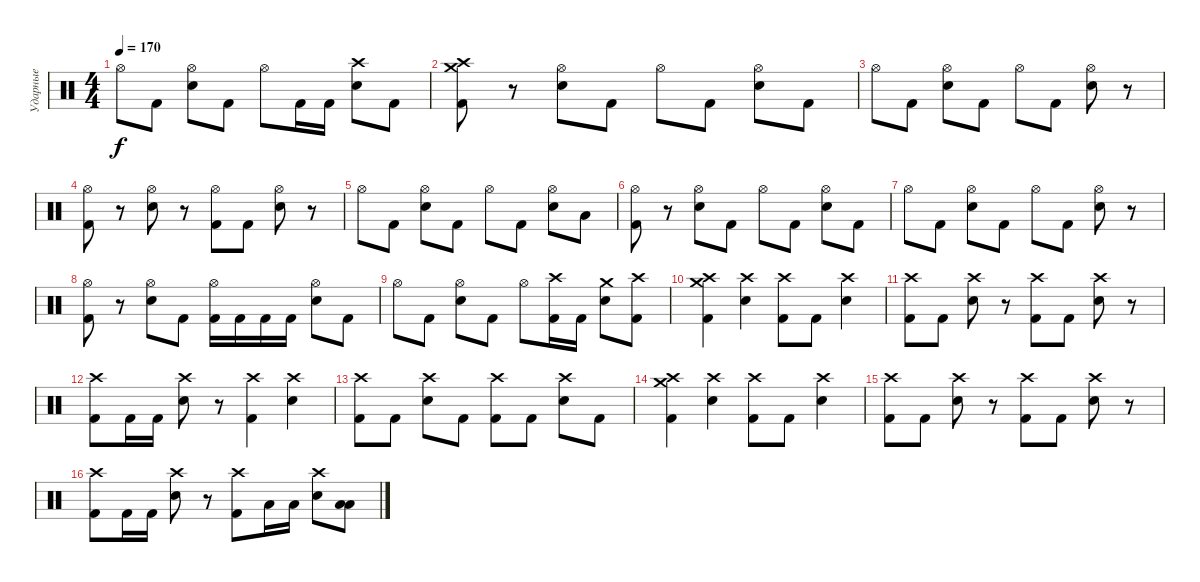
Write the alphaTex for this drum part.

\track ("Ударные" "Ударные") {instrument percussion}
\staff {score}
\articulation defaults
\ts (4 4)
\tempo 170
\clef neutral
\ks c "Hi-Hat (open)".8{dy f} "Kick (hit) 2".8
("Hi-Hat (open)" "Electric Snare (hit)").8 "Kick (hit) 2".8 "Hi-Hat (open)".8 "Kick (hit) 2".16 "Kick (hit) 2".16 ("Crash high (hit)" "Electric Snare (hit)").8 "Kick (hit) 2".8 |
("Crash medium (hit)" "Crash high (hit)" "Kick (hit) 2").8 r.8 ("Hi-Hat (open)" "Electric Snare (hit)").8 "Kick (hit) 2".8 "Hi-Hat (open)".8 "Kick (hit) 2".8 ("Hi-Hat (open)" "Electric Snare (hit)").8 "Kick (hit) 2".8 |
"Hi-Hat (open)".8 "Kick (hit) 2".8 ("Hi-Hat (open)" "Electric Snare (hit)").8 "Kick (hit) 2".8 "Hi-Hat (open)".8 "Kick (hit) 2".8 ("Hi-Hat (open)" "Electric Snare (hit)").8 r.8 |
("Hi-Hat (open)" "Kick (hit) 2").8 r.8 ("Hi-Hat (open)" "Electric Snare (hit)").8 r.8 ("Hi-Hat (open)" "Kick (hit) 2").8 "Kick (hit) 2".8 ("Hi-Hat (open)" "Electric Snare (hit)").8 r.8 |
"Hi-Hat (open)".8 "Kick (hit) 2".8 ("Hi-Hat (open)" "Electric Snare (hit)").8 "Kick (hit) 2".8 "Hi-Hat (open)".8 "Kick (hit) 2".8 ("Hi-Hat (open)" "Electric Snare (hit)").8 "Low Tom (hit)".8 |
("Hi-Hat (open)" "Kick (hit) 2").8 r.8 ("Hi-Hat (open)" "Electric Snare (hit)").8 "Kick (hit) 2".8 "Hi-Hat (open)".8 "Kick (hit) 2".8 ("Hi-Hat (open)" "Electric Snare (hit)").8 "Kick (hit) 2".8 |
"Hi-Hat (open)".8 "Kick (hit) 2".8 ("Hi-Hat (open)" "Electric Snare (hit)").8 "Kick (hit) 2".8 "Hi-Hat (open)".8 "Kick (hit) 2".8 ("Hi-Hat (open)" "Electric Snare (hit)").8 r.8 |
("Hi-Hat (open)" "Kick (hit) 2").8 r.8 ("Hi-Hat (open)" "Electric Snare (hit)").8 "Kick (hit) 2".8 ("Hi-Hat (open)" "Kick (hit) 2").16 "Kick (hit) 2".16 "Kick (hit) 2".16 "Kick (hit) 2".16 ("Hi-Hat (open)" "Electric Snare (hit)").8 "Kick (hit) 2".8 |
"Hi-Hat (open)".8 "Kick (hit) 2".8 ("Hi-Hat (open)" "Electric Snare (hit)").8 "Kick (hit) 2".8 "Hi-Hat (open)".8 ("Crash high (hit)" "Kick (hit) 2").16 "Kick (hit) 2".16 ("Crash medium (hit)" "Electric Snare (hit)").8 ("Crash high (hit)" "Kick (hit) 2").8 |
("Crash medium (hit)" "Crash high (hit)" "Kick (hit) 2").4 ("Crash high (hit)" "Electric Snare (hit)").4 ("Crash high (hit)" "Kick (hit) 2").8 "Kick (hit) 2".8 ("Crash high (hit)" "Electric Snare (hit)").4 |
("Crash high (hit)" "Kick (hit) 2").8 "Kick (hit) 2".8 ("Crash high (hit)" "Electric Snare (hit)").8 r.8 ("Crash high (hit)" "Kick (hit) 2").8 "Kick (hit) 2".8 ("Crash high (hit)" "Electric Snare (hit)").8 r.8 |
("Crash high (hit)" "Kick (hit) 2").8 "Kick (hit) 2".16 "Kick (hit) 2".16 ("Crash high (hit)" "Electric Snare (hit)").8 r.8 ("Crash high (hit)" "Kick (hit) 2").4 ("Crash high (hit)" "Electric Snare (hit)").4 |
("Crash high (hit)" "Kick (hit) 2").8 "Kick (hit) 2".8 ("Crash high (hit)" "Electric Snare (hit)").8 "Kick (hit) 2".8 ("Crash high (hit)" "Kick (hit) 2").8 "Kick (hit) 2".8 ("Crash high (hit)" "Electric Snare (hit)").8 "Kick (hit) 2".8 |
("Crash medium (hit)" "Crash high (hit)" "Kick (hit) 2").4 ("Crash high (hit)" "Electric Snare (hit)").4 ("Crash high (hit)" "Kick (hit) 2").8 "Kick (hit) 2".8 ("Crash high (hit)" "Electric Snare (hit)").4 |
("Crash high (hit)" "Kick (hit) 2").8 "Kick (hit) 2".8 ("Crash high (hit)" "Electric Snare (hit)").8 r.8 ("Crash high (hit)" "Kick (hit) 2").8 "Kick (hit) 2".8 ("Crash high (hit)" "Electric Snare (hit)").8 r.8 |
("Crash high (hit)" "Kick (hit) 2").8 "Kick (hit) 2".16 "Kick (hit) 2".16 ("Crash high (hit)" "Electric Snare (hit)").8 r.8 ("Crash high (hit)" "Kick (hit) 2").8 "Low Tom (hit)".16 "Low Tom (hit)".16 ("Crash high (hit)" "Electric Snare (hit)").8 ("Low Tom (hit)" "Low Floor Tom (hit)").8
